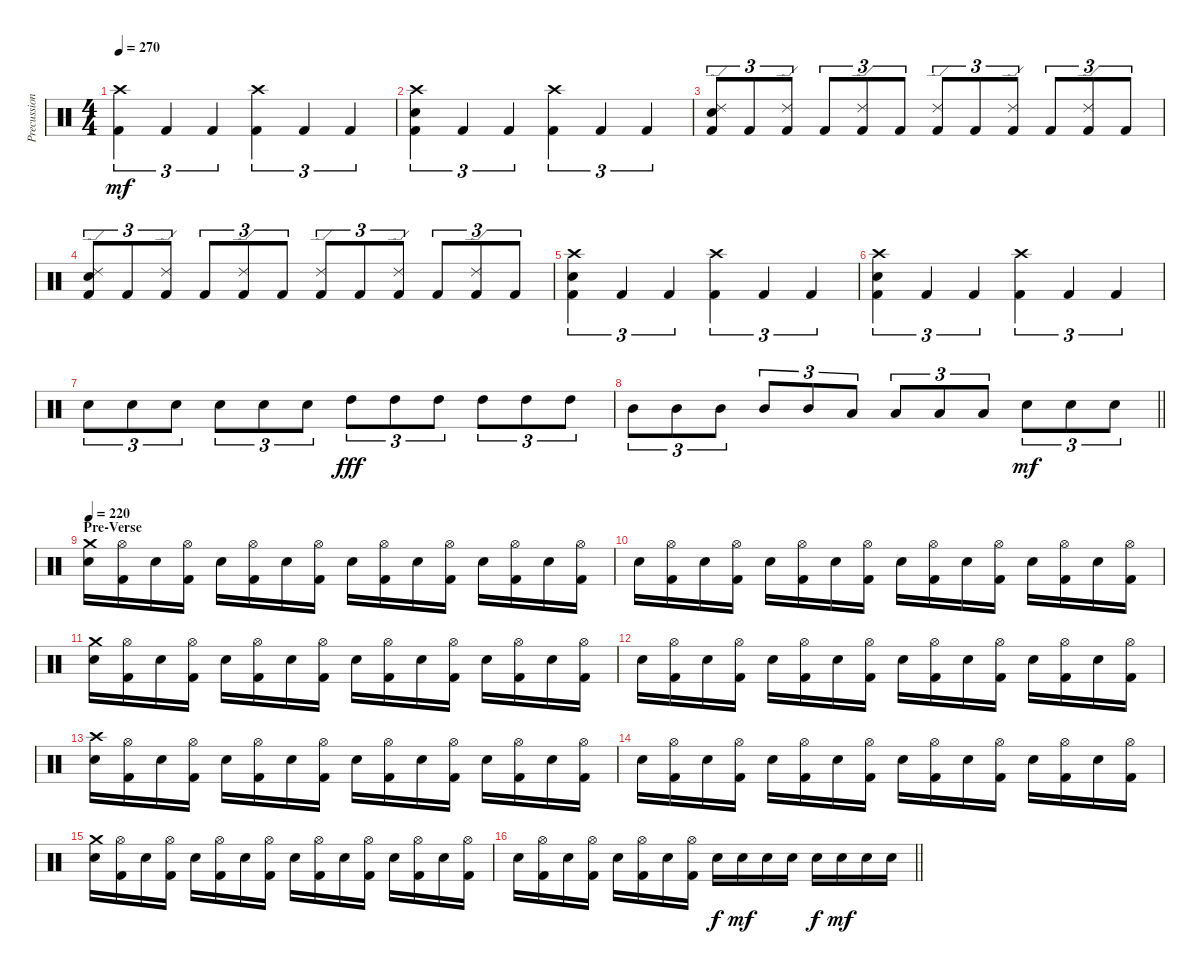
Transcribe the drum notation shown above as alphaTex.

\track ("Precussion" "Precussion") {instrument percussion}
\staff {score}
\articulation defaults
\ts (4 4)
\tempo 270
\clef neutral
\ks c
("Crash high (hit)" "Kick (hit) 2").4{tu (3 2) dy mf} "Kick (hit) 2".4{tu (3 2)} "Kick (hit) 2".4{tu (3 2)} ("Crash high (hit)" "Kick (hit) 2").4{tu (3 2)} "Kick (hit) 2".4{tu (3 2)} "Kick (hit) 2".4{tu (3 2)} |
("Crash high (hit)" "Electric Snare (hit)" "Kick (hit) 2").4{tu (3 2)} "Kick (hit) 2".4{tu (3 2)} "Kick (hit) 2".4{tu (3 2)} ("Crash high (hit)" "Kick (hit) 2").4{tu (3 2)} "Kick (hit) 2".4{tu (3 2)} "Kick (hit) 2".4{tu (3 2)} |
("Ride (edge) 2" "Electric Snare (hit)" "Kick (hit) 2").8{tu (3 2)} "Kick (hit) 2".8{tu (3 2)} ("Ride (edge) 2" "Kick (hit) 2").8{tu (3 2)} "Kick (hit) 2".8{tu (3 2)} ("Ride (edge) 2" "Kick (hit) 2").8{tu (3 2)} "Kick (hit) 2".8{tu (3 2)} ("Ride (edge) 2" "Kick (hit) 2").8{tu (3 2)} "Kick (hit) 2".8{tu (3 2)} ("Ride (edge) 2" "Kick (hit) 2").8{tu (3 2)} "Kick (hit) 2".8{tu (3 2)} ("Ride (edge) 2" "Kick (hit) 2").8{tu (3 2)} "Kick (hit) 2".8{tu (3 2)} |
("Ride (edge) 2" "Electric Snare (hit)" "Kick (hit) 2").8{tu (3 2)} "Kick (hit) 2".8{tu (3 2)} ("Ride (edge) 2" "Kick (hit) 2").8{tu (3 2)} "Kick (hit) 2".8{tu (3 2)} ("Ride (edge) 2" "Kick (hit) 2").8{tu (3 2)} "Kick (hit) 2".8{tu (3 2)} ("Ride (edge) 2" "Kick (hit) 2").8{tu (3 2)} "Kick (hit) 2".8{tu (3 2)} ("Ride (edge) 2" "Kick (hit) 2").8{tu (3 2)} "Kick (hit) 2".8{tu (3 2)} ("Ride (edge) 2" "Kick (hit) 2").8{tu (3 2)} "Kick (hit) 2".8{tu (3 2)} |
("Crash high (hit)" "Electric Snare (hit)" "Kick (hit) 2").4{tu (3 2)} "Kick (hit) 2".4{tu (3 2)} "Kick (hit) 2".4{tu (3 2)} ("Crash high (hit)" "Kick (hit) 2").4{tu (3 2)} "Kick (hit) 2".4{tu (3 2)} "Kick (hit) 2".4{tu (3 2)} |
("Crash high (hit)" "Electric Snare (hit)" "Kick (hit) 2").4{tu (3 2)} "Kick (hit) 2".4{tu (3 2)} "Kick (hit) 2".4{tu (3 2)} ("Crash high (hit)" "Kick (hit) 2").4{tu (3 2)} "Kick (hit) 2".4{tu (3 2)} "Kick (hit) 2".4{tu (3 2)} |
"Electric Snare (hit)".8{tu (3 2)} "Electric Snare (hit)".8{tu (3 2)} "Electric Snare (hit)".8{tu (3 2)} "Electric Snare (hit)".8{tu (3 2)} "Electric Snare (hit)".8{tu (3 2)} "Electric Snare (hit)".8{tu (3 2)} "High Tom (hit)".8{tu (3 2) dy fff} "High Tom (hit)".8{tu (3 2)} "High Tom (hit)".8{tu (3 2)} "High Tom (hit)".8{tu (3 2)} "High Tom (hit)".8{tu (3 2)} "High Tom (hit)".8{tu (3 2)} |
\barLineRight lightlight "Mid Tom (hit)".8{tu (3 2)} "Mid Tom (hit)".8{tu (3 2)} "Mid Tom (hit)".8{tu (3 2)} "Mid Tom (hit)".8{tu (3 2)} "Mid Tom (hit)".8{tu (3 2)} "Low Tom (hit)".8{tu (3 2)} "Low Tom (hit)".8{tu (3 2)} "Low Tom (hit)".8{tu (3 2)} "Low Tom (hit)".8{tu (3 2)} "Electric Snare (hit)".8{tu (3 2) dy mf} "Electric Snare (hit)".8{tu (3 2)} "Electric Snare (hit)".8{tu (3 2)}
|
\section ("" "Pre-Verse")
\tempo 220
("Crash medium (hit)" "Electric Snare (hit)").16 ("Hi-Hat (open)" "Kick (hit) 2").16 "Electric Snare (hit)".16 ("Hi-Hat (open)" "Kick (hit) 2").16 "Electric Snare (hit)".16 ("Hi-Hat (open)" "Kick (hit) 2").16 "Electric Snare (hit)".16 ("Hi-Hat (open)" "Kick (hit) 2").16 "Electric Snare (hit)".16 ("Hi-Hat (open)" "Kick (hit) 2").16 "Electric Snare (hit)".16 ("Hi-Hat (open)" "Kick (hit) 2").16 "Electric Snare (hit)".16 ("Hi-Hat (open)" "Kick (hit) 2").16 "Electric Snare (hit)".16 ("Hi-Hat (open)" "Kick (hit) 2").16 |
"Electric Snare (hit)".16 ("Hi-Hat (open)" "Kick (hit) 2").16 "Electric Snare (hit)".16 ("Hi-Hat (open)" "Kick (hit) 2").16 "Electric Snare (hit)".16 ("Hi-Hat (open)" "Kick (hit) 2").16 "Electric Snare (hit)".16 ("Hi-Hat (open)" "Kick (hit) 2").16 "Electric Snare (hit)".16 ("Hi-Hat (open)" "Kick (hit) 2").16 "Electric Snare (hit)".16 ("Hi-Hat (open)" "Kick (hit) 2").16 "Electric Snare (hit)".16 ("Hi-Hat (open)" "Kick (hit) 2").16 "Electric Snare (hit)".16 ("Hi-Hat (open)" "Kick (hit) 2").16 |
("Crash medium (hit)" "Electric Snare (hit)").16 ("Hi-Hat (open)" "Kick (hit) 2").16 "Electric Snare (hit)".16 ("Hi-Hat (open)" "Kick (hit) 2").16 "Electric Snare (hit)".16 ("Hi-Hat (open)" "Kick (hit) 2").16 "Electric Snare (hit)".16 ("Hi-Hat (open)" "Kick (hit) 2").16 "Electric Snare (hit)".16 ("Hi-Hat (open)" "Kick (hit) 2").16 "Electric Snare (hit)".16 ("Hi-Hat (open)" "Kick (hit) 2").16 "Electric Snare (hit)".16 ("Hi-Hat (open)" "Kick (hit) 2").16 "Electric Snare (hit)".16 ("Hi-Hat (open)" "Kick (hit) 2").16 |
"Electric Snare (hit)".16 ("Hi-Hat (open)" "Kick (hit) 2").16 "Electric Snare (hit)".16 ("Hi-Hat (open)" "Kick (hit) 2").16 "Electric Snare (hit)".16 ("Hi-Hat (open)" "Kick (hit) 2").16 "Electric Snare (hit)".16 ("Hi-Hat (open)" "Kick (hit) 2").16 "Electric Snare (hit)".16 ("Hi-Hat (open)" "Kick (hit) 2").16 "Electric Snare (hit)".16 ("Hi-Hat (open)" "Kick (hit) 2").16 "Electric Snare (hit)".16 ("Hi-Hat (open)" "Kick (hit) 2").16 "Electric Snare (hit)".16 ("Hi-Hat (open)" "Kick (hit) 2").16 |
("Crash high (hit)" "Electric Snare (hit)").16 ("Hi-Hat (open)" "Kick (hit) 2").16 "Electric Snare (hit)".16 ("Hi-Hat (open)" "Kick (hit) 2").16 "Electric Snare (hit)".16 ("Hi-Hat (open)" "Kick (hit) 2").16 "Electric Snare (hit)".16 ("Hi-Hat (open)" "Kick (hit) 2").16 "Electric Snare (hit)".16 ("Hi-Hat (open)" "Kick (hit) 2").16 "Electric Snare (hit)".16 ("Hi-Hat (open)" "Kick (hit) 2").16 "Electric Snare (hit)".16 ("Hi-Hat (open)" "Kick (hit) 2").16 "Electric Snare (hit)".16 ("Hi-Hat (open)" "Kick (hit) 2").16 |
"Electric Snare (hit)".16 ("Hi-Hat (open)" "Kick (hit) 2").16 "Electric Snare (hit)".16 ("Hi-Hat (open)" "Kick (hit) 2").16 "Electric Snare (hit)".16 ("Hi-Hat (open)" "Kick (hit) 2").16 "Electric Snare (hit)".16 ("Hi-Hat (open)" "Kick (hit) 2").16 "Electric Snare (hit)".16 ("Hi-Hat (open)" "Kick (hit) 2").16 "Electric Snare (hit)".16 ("Hi-Hat (open)" "Kick (hit) 2").16 "Electric Snare (hit)".16 ("Hi-Hat (open)" "Kick (hit) 2").16 "Electric Snare (hit)".16 ("Hi-Hat (open)" "Kick (hit) 2").16 |
("Crash medium (hit)" "Electric Snare (hit)").16 ("Hi-Hat (open)" "Kick (hit) 2").16 "Electric Snare (hit)".16 ("Hi-Hat (open)" "Kick (hit) 2").16 "Electric Snare (hit)".16 ("Hi-Hat (open)" "Kick (hit) 2").16 "Electric Snare (hit)".16 ("Hi-Hat (open)" "Kick (hit) 2").16 "Electric Snare (hit)".16 ("Hi-Hat (open)" "Kick (hit) 2").16 "Electric Snare (hit)".16 ("Hi-Hat (open)" "Kick (hit) 2").16 "Electric Snare (hit)".16 ("Hi-Hat (open)" "Kick (hit) 2").16 "Electric Snare (hit)".16 ("Hi-Hat (open)" "Kick (hit) 2").16 |
\barLineRight lightlight "Electric Snare (hit)".16
("Hi-Hat (open)" "Kick (hit) 2").16 "Electric Snare (hit)".16 ("Hi-Hat (open)" "Kick (hit) 2").16 "Electric Snare (hit)".16 ("Hi-Hat (open)" "Kick (hit) 2").16 "Electric Snare (hit)".16 ("Hi-Hat (open)" "Kick (hit) 2").16 "Electric Snare (hit)".16{dy f} "Electric Snare (hit)".16{dy mf} "Electric Snare (hit)".16 "Electric Snare (hit)".16 "Electric Snare (hit)".16{dy f} "Electric Snare (hit)".16{dy mf} "Electric Snare (hit)".16 "Electric Snare (hit)".16
